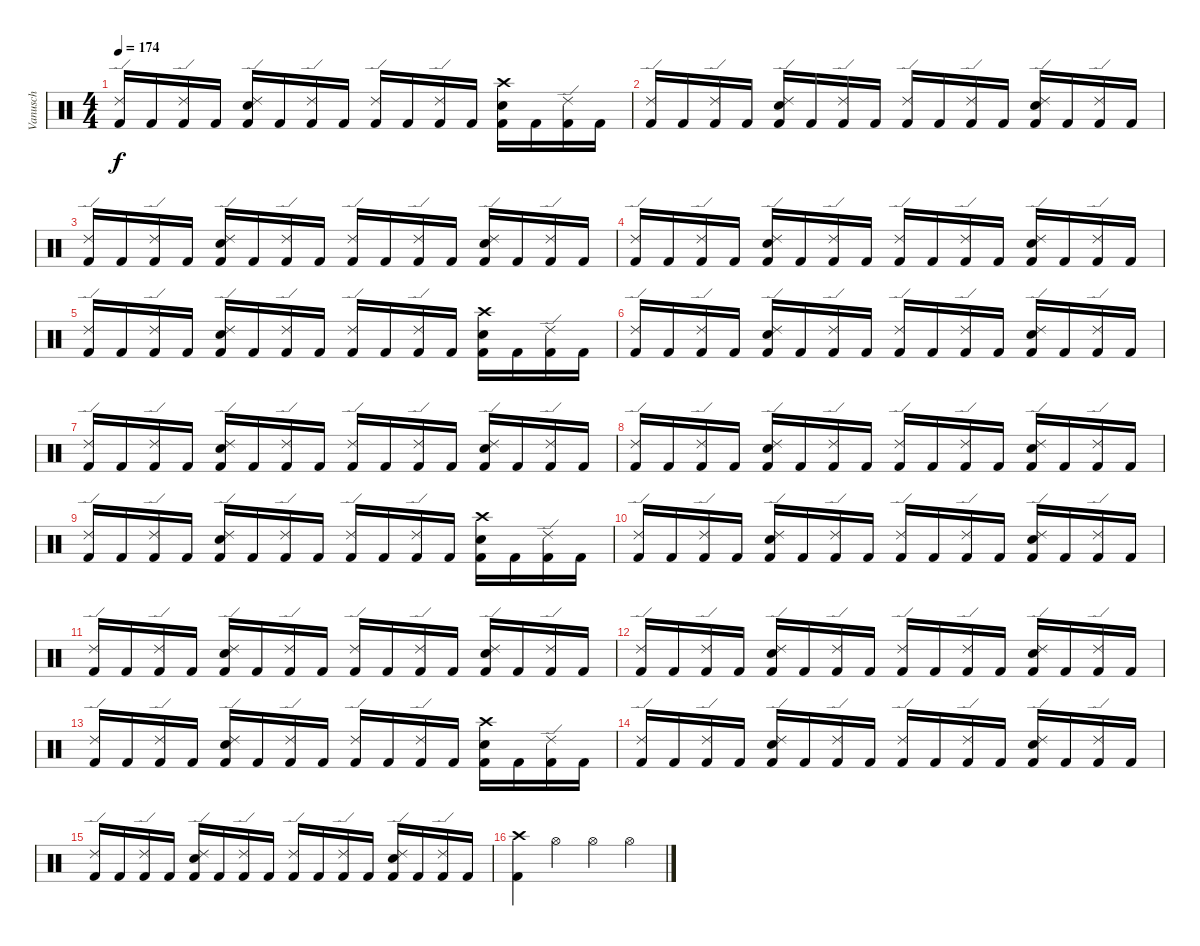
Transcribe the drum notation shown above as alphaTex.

\track ("Vanusch" "Vanusch") {instrument percussion}
\staff {score}
\articulation defaults
\ts (4 4)
\tempo 174
\clef neutral
\ks c
("Ride (edge) 2" "Kick (hit) 2").16{dy f} "Kick (hit) 2".16 ("Ride (edge) 2" "Kick (hit) 2").16 "Kick (hit) 2".16 ("Ride (edge) 2" "Snare (hit) 2" "Kick (hit) 2").16 "Kick (hit) 2".16 ("Ride (edge) 2" "Kick (hit) 2").16 "Kick (hit) 2".16 ("Ride (edge) 2" "Kick (hit) 2").16 "Kick (hit) 2".16 ("Ride (edge) 2" "Kick (hit) 2").16 "Kick (hit) 2".16 ("Crash high (hit)" "Snare (hit) 2" "Kick (hit) 2").16 "Kick (hit) 2".16 ("Ride (edge) 2" "Kick (hit) 2").16 "Kick (hit) 2".16 |
("Ride (edge) 2" "Kick (hit) 2").16 "Kick (hit) 2".16 ("Ride (edge) 2" "Kick (hit) 2").16 "Kick (hit) 2".16 ("Ride (edge) 2" "Snare (hit) 2" "Kick (hit) 2").16 "Kick (hit) 2".16 ("Ride (edge) 2" "Kick (hit) 2").16 "Kick (hit) 2".16 ("Ride (edge) 2" "Kick (hit) 2").16 "Kick (hit) 2".16 ("Ride (edge) 2" "Kick (hit) 2").16 "Kick (hit) 2".16 ("Ride (edge) 2" "Snare (hit) 2" "Kick (hit) 2").16 "Kick (hit) 2".16 ("Ride (edge) 2" "Kick (hit) 2").16 "Kick (hit) 2".16 |
("Ride (edge) 2" "Kick (hit) 2").16 "Kick (hit) 2".16 ("Ride (edge) 2" "Kick (hit) 2").16 "Kick (hit) 2".16 ("Ride (edge) 2" "Snare (hit) 2" "Kick (hit) 2").16 "Kick (hit) 2".16 ("Ride (edge) 2" "Kick (hit) 2").16 "Kick (hit) 2".16 ("Ride (edge) 2" "Kick (hit) 2").16 "Kick (hit) 2".16 ("Ride (edge) 2" "Kick (hit) 2").16 "Kick (hit) 2".16 ("Ride (edge) 2" "Snare (hit) 2" "Kick (hit) 2").16 "Kick (hit) 2".16 ("Ride (edge) 2" "Kick (hit) 2").16 "Kick (hit) 2".16 |
("Ride (edge) 2" "Kick (hit) 2").16 "Kick (hit) 2".16 ("Ride (edge) 2" "Kick (hit) 2").16 "Kick (hit) 2".16 ("Ride (edge) 2" "Snare (hit) 2" "Kick (hit) 2").16 "Kick (hit) 2".16 ("Ride (edge) 2" "Kick (hit) 2").16 "Kick (hit) 2".16 ("Ride (edge) 2" "Kick (hit) 2").16 "Kick (hit) 2".16 ("Ride (edge) 2" "Kick (hit) 2").16 "Kick (hit) 2".16 ("Ride (edge) 2" "Snare (hit) 2" "Kick (hit) 2").16 "Kick (hit) 2".16 ("Ride (edge) 2" "Kick (hit) 2").16 "Kick (hit) 2".16 |
("Ride (edge) 2" "Kick (hit) 2").16 "Kick (hit) 2".16 ("Ride (edge) 2" "Kick (hit) 2").16 "Kick (hit) 2".16 ("Ride (edge) 2" "Snare (hit) 2" "Kick (hit) 2").16 "Kick (hit) 2".16 ("Ride (edge) 2" "Kick (hit) 2").16 "Kick (hit) 2".16 ("Ride (edge) 2" "Kick (hit) 2").16 "Kick (hit) 2".16 ("Ride (edge) 2" "Kick (hit) 2").16 "Kick (hit) 2".16 ("Crash high (hit)" "Snare (hit) 2" "Kick (hit) 2").16 "Kick (hit) 2".16 ("Ride (edge) 2" "Kick (hit) 2").16 "Kick (hit) 2".16 |
("Ride (edge) 2" "Kick (hit) 2").16 "Kick (hit) 2".16 ("Ride (edge) 2" "Kick (hit) 2").16 "Kick (hit) 2".16 ("Ride (edge) 2" "Snare (hit) 2" "Kick (hit) 2").16 "Kick (hit) 2".16 ("Ride (edge) 2" "Kick (hit) 2").16 "Kick (hit) 2".16 ("Ride (edge) 2" "Kick (hit) 2").16 "Kick (hit) 2".16 ("Ride (edge) 2" "Kick (hit) 2").16 "Kick (hit) 2".16 ("Ride (edge) 2" "Snare (hit) 2" "Kick (hit) 2").16 "Kick (hit) 2".16 ("Ride (edge) 2" "Kick (hit) 2").16 "Kick (hit) 2".16 |
("Ride (edge) 2" "Kick (hit) 2").16 "Kick (hit) 2".16 ("Ride (edge) 2" "Kick (hit) 2").16 "Kick (hit) 2".16 ("Ride (edge) 2" "Snare (hit) 2" "Kick (hit) 2").16 "Kick (hit) 2".16 ("Ride (edge) 2" "Kick (hit) 2").16 "Kick (hit) 2".16 ("Ride (edge) 2" "Kick (hit) 2").16 "Kick (hit) 2".16 ("Ride (edge) 2" "Kick (hit) 2").16 "Kick (hit) 2".16 ("Ride (edge) 2" "Snare (hit) 2" "Kick (hit) 2").16 "Kick (hit) 2".16 ("Ride (edge) 2" "Kick (hit) 2").16 "Kick (hit) 2".16 |
("Ride (edge) 2" "Kick (hit) 2").16 "Kick (hit) 2".16 ("Ride (edge) 2" "Kick (hit) 2").16 "Kick (hit) 2".16 ("Ride (edge) 2" "Snare (hit) 2" "Kick (hit) 2").16 "Kick (hit) 2".16 ("Ride (edge) 2" "Kick (hit) 2").16 "Kick (hit) 2".16 ("Ride (edge) 2" "Kick (hit) 2").16 "Kick (hit) 2".16 ("Ride (edge) 2" "Kick (hit) 2").16 "Kick (hit) 2".16 ("Ride (edge) 2" "Snare (hit) 2" "Kick (hit) 2").16 "Kick (hit) 2".16 ("Ride (edge) 2" "Kick (hit) 2").16 "Kick (hit) 2".16 |
("Ride (edge) 2" "Kick (hit) 2").16 "Kick (hit) 2".16 ("Ride (edge) 2" "Kick (hit) 2").16 "Kick (hit) 2".16 ("Ride (edge) 2" "Snare (hit) 2" "Kick (hit) 2").16 "Kick (hit) 2".16 ("Ride (edge) 2" "Kick (hit) 2").16 "Kick (hit) 2".16 ("Ride (edge) 2" "Kick (hit) 2").16 "Kick (hit) 2".16 ("Ride (edge) 2" "Kick (hit) 2").16 "Kick (hit) 2".16 ("Crash high (hit)" "Snare (hit) 2" "Kick (hit) 2").16 "Kick (hit) 2".16 ("Ride (edge) 2" "Kick (hit) 2").16 "Kick (hit) 2".16 |
("Ride (edge) 2" "Kick (hit) 2").16 "Kick (hit) 2".16 ("Ride (edge) 2" "Kick (hit) 2").16 "Kick (hit) 2".16 ("Ride (edge) 2" "Snare (hit) 2" "Kick (hit) 2").16 "Kick (hit) 2".16 ("Ride (edge) 2" "Kick (hit) 2").16 "Kick (hit) 2".16 ("Ride (edge) 2" "Kick (hit) 2").16 "Kick (hit) 2".16 ("Ride (edge) 2" "Kick (hit) 2").16 "Kick (hit) 2".16 ("Ride (edge) 2" "Snare (hit) 2" "Kick (hit) 2").16 "Kick (hit) 2".16 ("Ride (edge) 2" "Kick (hit) 2").16 "Kick (hit) 2".16 |
("Ride (edge) 2" "Kick (hit) 2").16 "Kick (hit) 2".16 ("Ride (edge) 2" "Kick (hit) 2").16 "Kick (hit) 2".16 ("Ride (edge) 2" "Snare (hit) 2" "Kick (hit) 2").16 "Kick (hit) 2".16 ("Ride (edge) 2" "Kick (hit) 2").16 "Kick (hit) 2".16 ("Ride (edge) 2" "Kick (hit) 2").16 "Kick (hit) 2".16 ("Ride (edge) 2" "Kick (hit) 2").16 "Kick (hit) 2".16 ("Ride (edge) 2" "Snare (hit) 2" "Kick (hit) 2").16 "Kick (hit) 2".16 ("Ride (edge) 2" "Kick (hit) 2").16 "Kick (hit) 2".16 |
("Ride (edge) 2" "Kick (hit) 2").16 "Kick (hit) 2".16 ("Ride (edge) 2" "Kick (hit) 2").16 "Kick (hit) 2".16 ("Ride (edge) 2" "Snare (hit) 2" "Kick (hit) 2").16 "Kick (hit) 2".16 ("Ride (edge) 2" "Kick (hit) 2").16 "Kick (hit) 2".16 ("Ride (edge) 2" "Kick (hit) 2").16 "Kick (hit) 2".16 ("Ride (edge) 2" "Kick (hit) 2").16 "Kick (hit) 2".16 ("Ride (edge) 2" "Snare (hit) 2" "Kick (hit) 2").16 "Kick (hit) 2".16 ("Ride (edge) 2" "Kick (hit) 2").16 "Kick (hit) 2".16 |
("Ride (edge) 2" "Kick (hit) 2").16 "Kick (hit) 2".16 ("Ride (edge) 2" "Kick (hit) 2").16 "Kick (hit) 2".16 ("Ride (edge) 2" "Snare (hit) 2" "Kick (hit) 2").16 "Kick (hit) 2".16 ("Ride (edge) 2" "Kick (hit) 2").16 "Kick (hit) 2".16 ("Ride (edge) 2" "Kick (hit) 2").16 "Kick (hit) 2".16 ("Ride (edge) 2" "Kick (hit) 2").16 "Kick (hit) 2".16 ("Crash high (hit)" "Snare (hit) 2" "Kick (hit) 2").16 "Kick (hit) 2".16 ("Ride (edge) 2" "Kick (hit) 2").16 "Kick (hit) 2".16 |
("Ride (edge) 2" "Kick (hit) 2").16 "Kick (hit) 2".16 ("Ride (edge) 2" "Kick (hit) 2").16 "Kick (hit) 2".16 ("Ride (edge) 2" "Snare (hit) 2" "Kick (hit) 2").16 "Kick (hit) 2".16 ("Ride (edge) 2" "Kick (hit) 2").16 "Kick (hit) 2".16 ("Ride (edge) 2" "Kick (hit) 2").16 "Kick (hit) 2".16 ("Ride (edge) 2" "Kick (hit) 2").16 "Kick (hit) 2".16 ("Ride (edge) 2" "Snare (hit) 2" "Kick (hit) 2").16 "Kick (hit) 2".16 ("Ride (edge) 2" "Kick (hit) 2").16 "Kick (hit) 2".16 |
("Ride (edge) 2" "Kick (hit) 2").16 "Kick (hit) 2".16 ("Ride (edge) 2" "Kick (hit) 2").16 "Kick (hit) 2".16 ("Ride (edge) 2" "Snare (hit) 2" "Kick (hit) 2").16 "Kick (hit) 2".16 ("Ride (edge) 2" "Kick (hit) 2").16 "Kick (hit) 2".16 ("Ride (edge) 2" "Kick (hit) 2").16 "Kick (hit) 2".16 ("Ride (edge) 2" "Kick (hit) 2").16 "Kick (hit) 2".16 ("Ride (edge) 2" "Snare (hit) 2" "Kick (hit) 2").16 "Kick (hit) 2".16 ("Ride (edge) 2" "Kick (hit) 2").16 "Kick (hit) 2".16 |
("Crash high (hit)" "Kick (hit) 2").4 "Hi-Hat (open)".4 "Hi-Hat (open)".4 "Hi-Hat (open)".4
